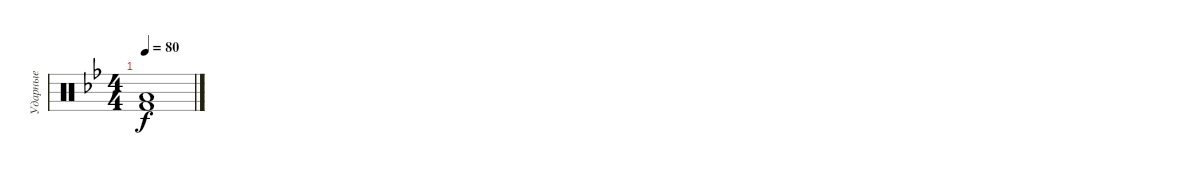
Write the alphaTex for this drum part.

\track ("Ударные" "Ударные") {instrument percussion}
\staff {score}
\articulation defaults
\ts (4 4)
\tempo 80
\clef neutral
\ks gminor
("Low Tom (hit)" "Kick (hit) 2").1{dy f}
